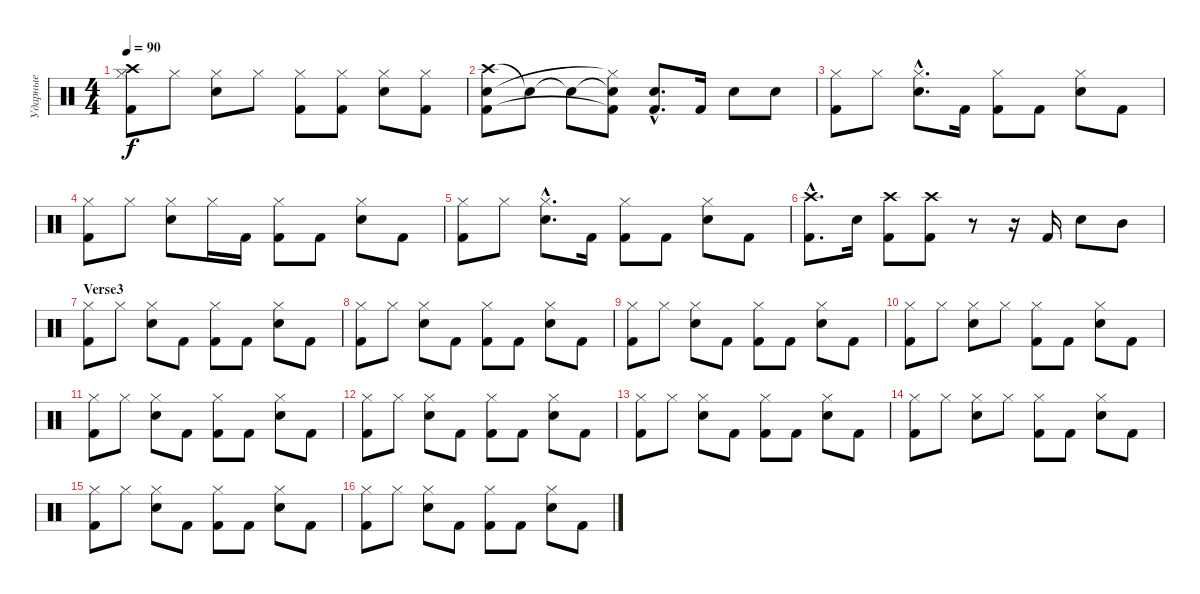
\track ("Ударные" "Ударные") {instrument percussion}
\staff {score}
\articulation defaults
\ts (4 4)
\tempo 90
\clef neutral
\ks c
("Crash high (hit)" "Hi-Hat (closed)" "Kick (hit) 2").8{dy f} "Hi-Hat (closed)".8 ("Hi-Hat (closed)" "Snare (hit) 2").8 "Hi-Hat (closed)".8 ("Hi-Hat (closed)" "Kick (hit) 2").8 ("Hi-Hat (closed)" "Kick (hit) 2").8 ("Hi-Hat (closed)" "Snare (hit) 2").8 ("Hi-Hat (closed)" "Kick (hit) 2").8 |
("Crash high (hit)" "Snare (hit) 2" "Kick (hit) 2").8 "Snare (hit)"{t}.8 "Snare (hit)"{t}.8 ("Snare (hit)"{t} "Hi-Hat (closed)"{t} "Kick (hit) 2"{t}).8 ("Snare (hit) 2"{hac} "Kick (hit) 2"{hac}).8{d} "Kick (hit) 2".16 "Snare (hit) 2".8 "Snare (hit) 2".8 |
("Hi-Hat (closed)" "Kick (hit) 2").8 "Hi-Hat (closed)".8 ("Hi-Hat (closed)"{hac} "Snare (hit) 2"{hac}).8{d} "Kick (hit) 2".16 ("Hi-Hat (closed)" "Kick (hit) 2").8 "Kick (hit) 2".8 ("Hi-Hat (closed)" "Snare (hit) 2").8 "Kick (hit) 2".8 |
("Hi-Hat (closed)" "Kick (hit) 2").8 "Hi-Hat (closed)".8 ("Hi-Hat (closed)" "Snare (hit) 2").8 "Hi-Hat (closed)".16 "Kick (hit) 2".16 ("Hi-Hat (closed)" "Kick (hit) 2").8 "Kick (hit) 2".8 ("Hi-Hat (closed)" "Snare (hit) 2").8 "Kick (hit) 2".8 |
("Hi-Hat (closed)" "Kick (hit) 2").8 "Hi-Hat (closed)".8 ("Hi-Hat (closed)"{hac} "Snare (hit) 2"{hac}).8{d} "Kick (hit) 2".16 ("Hi-Hat (closed)" "Kick (hit) 2").8 "Kick (hit) 2".8 ("Hi-Hat (closed)" "Snare (hit) 2").8 "Kick (hit) 2".8 |
("Crash high (hit)"{hac} "Kick (hit) 2"{hac}).8{d} "Snare (hit) 2".16 ("Crash high (hit)" "Kick (hit) 2").8 ("Crash high (hit)" "Kick (hit) 2").8 r.8 r.16 "Kick (hit) 2".16 "Snare (hit) 2".8 "Mid Tom (hit)".8 |
\section ("" "Verse3")
("Hi-Hat (closed)" "Kick (hit) 2").8 "Hi-Hat (closed)".8 ("Hi-Hat (closed)" "Snare (hit) 2").8 "Kick (hit) 2".8 ("Hi-Hat (closed)" "Kick (hit) 2").8 "Kick (hit) 2".8 ("Hi-Hat (closed)" "Snare (hit) 2").8 "Kick (hit) 2".8 |
("Hi-Hat (closed)" "Kick (hit) 2").8 "Hi-Hat (closed)".8 ("Hi-Hat (closed)" "Snare (hit) 2").8 "Kick (hit) 2".8 ("Hi-Hat (closed)" "Kick (hit) 2").8 "Kick (hit) 2".8 ("Hi-Hat (closed)" "Snare (hit) 2").8 "Kick (hit) 2".8 |
("Hi-Hat (closed)" "Kick (hit) 2").8 "Hi-Hat (closed)".8 ("Hi-Hat (closed)" "Snare (hit) 2").8 "Kick (hit) 2".8 ("Hi-Hat (closed)" "Kick (hit) 2").8 "Kick (hit) 2".8 ("Hi-Hat (closed)" "Snare (hit) 2").8 "Kick (hit) 2".8 |
("Hi-Hat (closed)" "Kick (hit) 2").8 "Hi-Hat (closed)".8 ("Snare (hit) 2" "Hi-Hat (closed)").8 "Hi-Hat (closed)".8 ("Hi-Hat (closed)" "Kick (hit) 2").8 "Kick (hit) 2".8 ("Hi-Hat (closed)" "Snare (hit) 2").8 "Kick (hit) 2".8 |
("Hi-Hat (closed)" "Kick (hit) 2").8 "Hi-Hat (closed)".8 ("Hi-Hat (closed)" "Snare (hit) 2").8 "Kick (hit) 2".8 ("Hi-Hat (closed)" "Kick (hit) 2").8 "Kick (hit) 2".8 ("Hi-Hat (closed)" "Snare (hit) 2").8 "Kick (hit) 2".8 |
("Hi-Hat (closed)" "Kick (hit) 2").8 "Hi-Hat (closed)".8 ("Hi-Hat (closed)" "Snare (hit) 2").8 "Kick (hit) 2".8 ("Hi-Hat (closed)" "Kick (hit) 2").8 "Kick (hit) 2".8 ("Hi-Hat (closed)" "Snare (hit) 2").8 "Kick (hit) 2".8 |
("Hi-Hat (closed)" "Kick (hit) 2").8 "Hi-Hat (closed)".8 ("Hi-Hat (closed)" "Snare (hit) 2").8 "Kick (hit) 2".8 ("Hi-Hat (closed)" "Kick (hit) 2").8 "Kick (hit) 2".8 ("Hi-Hat (closed)" "Snare (hit) 2").8 "Kick (hit) 2".8 |
("Hi-Hat (closed)" "Kick (hit) 2").8 "Hi-Hat (closed)".8 ("Snare (hit) 2" "Hi-Hat (closed)").8 "Hi-Hat (closed)".8 ("Hi-Hat (closed)" "Kick (hit) 2").8 "Kick (hit) 2".8 ("Hi-Hat (closed)" "Snare (hit) 2").8 "Kick (hit) 2".8 |
("Hi-Hat (closed)" "Kick (hit) 2").8 "Hi-Hat (closed)".8 ("Hi-Hat (closed)" "Snare (hit) 2").8 "Kick (hit) 2".8 ("Hi-Hat (closed)" "Kick (hit) 2").8 "Kick (hit) 2".8 ("Hi-Hat (closed)" "Snare (hit) 2").8 "Kick (hit) 2".8 |
("Hi-Hat (closed)" "Kick (hit) 2").8 "Hi-Hat (closed)".8 ("Hi-Hat (closed)" "Snare (hit) 2").8 "Kick (hit) 2".8 ("Hi-Hat (closed)" "Kick (hit) 2").8 "Kick (hit) 2".8 ("Hi-Hat (closed)" "Snare (hit) 2").8 "Kick (hit) 2".8
